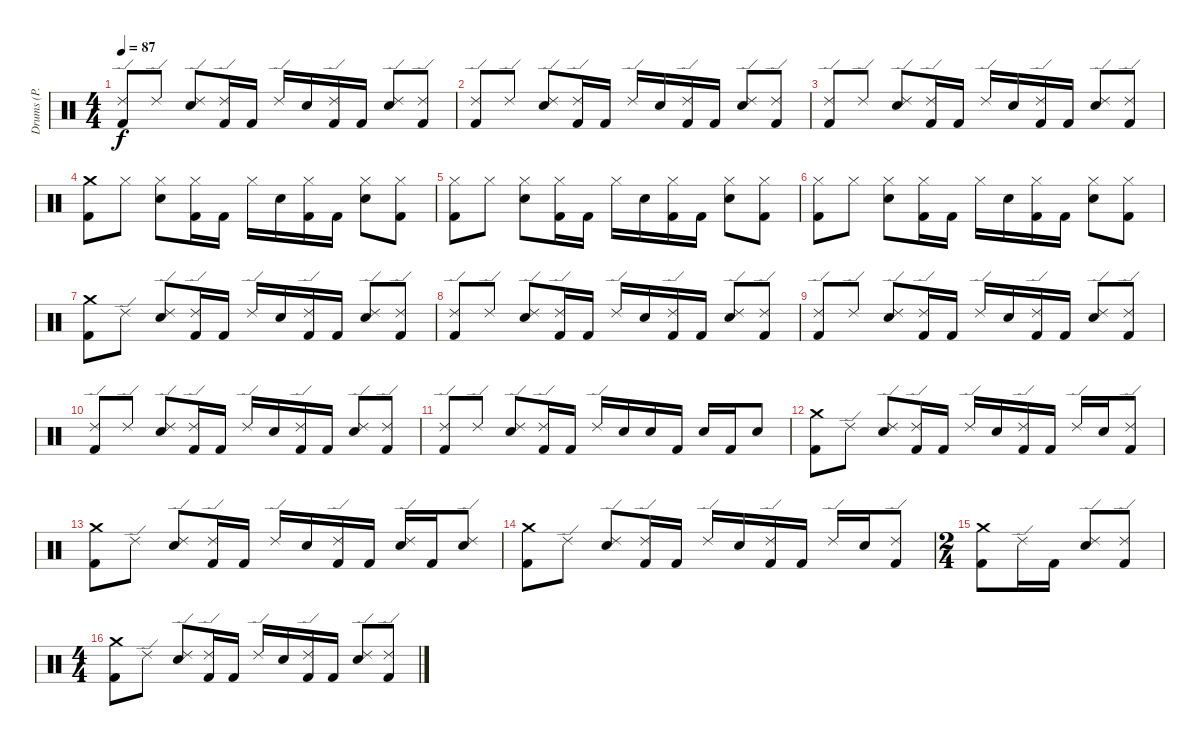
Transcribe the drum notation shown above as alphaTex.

\track ("Drums (P. Selway)" "Drums (P. ") {instrument percussion}
\staff {score}
\articulation defaults
\ts (4 4)
\tempo 87
\clef neutral
\ks c
("Ride (edge) 2" "Kick (hit) 2").8{dy f} "Ride (edge) 2".8 ("Ride (edge) 2" "Electric Snare (hit)").8 ("Ride (edge) 2" "Kick (hit) 2").16 "Kick (hit) 2".16 "Ride (edge) 2".16 "Electric Snare (hit)".16 ("Ride (edge) 2" "Kick (hit) 2").16 "Kick (hit) 2".16 ("Ride (edge) 2" "Electric Snare (hit)").8 ("Ride (edge) 2" "Kick (hit) 2").8 |
("Ride (edge) 2" "Kick (hit) 2").8 "Ride (edge) 2".8 ("Ride (edge) 2" "Electric Snare (hit)").8 ("Ride (edge) 2" "Kick (hit) 2").16 "Kick (hit) 2".16 "Ride (edge) 2".16 "Electric Snare (hit)".16 ("Ride (edge) 2" "Kick (hit) 2").16 "Kick (hit) 2".16 ("Ride (edge) 2" "Electric Snare (hit)").8 ("Ride (edge) 2" "Kick (hit) 2").8 |
("Ride (edge) 2" "Kick (hit) 2").8 "Ride (edge) 2".8 ("Ride (edge) 2" "Electric Snare (hit)").8 ("Ride (edge) 2" "Kick (hit) 2").16 "Kick (hit) 2".16 "Ride (edge) 2".16 "Electric Snare (hit)".16 ("Ride (edge) 2" "Kick (hit) 2").16 "Kick (hit) 2".16 ("Ride (edge) 2" "Electric Snare (hit)").8 ("Ride (edge) 2" "Kick (hit) 2").8 |
("Crash medium (hit)" "Kick (hit) 2").8 "Hi-Hat (closed)".8 ("Hi-Hat (closed)" "Electric Snare (hit)").8 ("Hi-Hat (closed)" "Kick (hit) 2").16 "Kick (hit) 2".16 "Hi-Hat (closed)".16 "Electric Snare (hit)".16 ("Hi-Hat (closed)" "Kick (hit) 2").16 "Kick (hit) 2".16 ("Hi-Hat (closed)" "Electric Snare (hit)").8 ("Hi-Hat (closed)" "Kick (hit) 2").8 |
("Hi-Hat (closed)" "Kick (hit) 2").8 "Hi-Hat (closed)".8 ("Hi-Hat (closed)" "Electric Snare (hit)").8 ("Hi-Hat (closed)" "Kick (hit) 2").16 "Kick (hit) 2".16 "Hi-Hat (closed)".16 "Electric Snare (hit)".16 ("Hi-Hat (closed)" "Kick (hit) 2").16 "Kick (hit) 2".16 ("Hi-Hat (closed)" "Electric Snare (hit)").8 ("Hi-Hat (closed)" "Kick (hit) 2").8 |
("Hi-Hat (closed)" "Kick (hit) 2").8 "Hi-Hat (closed)".8 ("Hi-Hat (closed)" "Electric Snare (hit)").8 ("Hi-Hat (closed)" "Kick (hit) 2").16 "Kick (hit) 2".16 "Hi-Hat (closed)".16 "Electric Snare (hit)".16 ("Hi-Hat (closed)" "Kick (hit) 2").16 "Kick (hit) 2".16 ("Hi-Hat (closed)" "Electric Snare (hit)").8 ("Hi-Hat (closed)" "Kick (hit) 2").8 |
("Crash medium (hit)" "Kick (hit) 2").8 "Ride (edge) 2".8 ("Ride (edge) 2" "Electric Snare (hit)").8 ("Ride (edge) 2" "Kick (hit) 2").16 "Kick (hit) 2".16 "Ride (edge) 2".16 "Electric Snare (hit)".16 ("Ride (edge) 2" "Kick (hit) 2").16 "Kick (hit) 2".16 ("Ride (edge) 2" "Electric Snare (hit)").8 ("Ride (edge) 2" "Kick (hit) 2").8 |
("Ride (edge) 2" "Kick (hit) 2").8 "Ride (edge) 2".8 ("Ride (edge) 2" "Electric Snare (hit)").8 ("Ride (edge) 2" "Kick (hit) 2").16 "Kick (hit) 2".16 "Ride (edge) 2".16 "Electric Snare (hit)".16 ("Ride (edge) 2" "Kick (hit) 2").16 "Kick (hit) 2".16 ("Ride (edge) 2" "Electric Snare (hit)").8 ("Ride (edge) 2" "Kick (hit) 2").8 |
("Ride (edge) 2" "Kick (hit) 2").8 "Ride (edge) 2".8 ("Ride (edge) 2" "Electric Snare (hit)").8 ("Ride (edge) 2" "Kick (hit) 2").16 "Kick (hit) 2".16 "Ride (edge) 2".16 "Electric Snare (hit)".16 ("Ride (edge) 2" "Kick (hit) 2").16 "Kick (hit) 2".16 ("Ride (edge) 2" "Electric Snare (hit)").8 ("Ride (edge) 2" "Kick (hit) 2").8 |
("Ride (edge) 2" "Kick (hit) 2").8 "Ride (edge) 2".8 ("Ride (edge) 2" "Electric Snare (hit)").8 ("Ride (edge) 2" "Kick (hit) 2").16 "Kick (hit) 2".16 "Ride (edge) 2".16 "Electric Snare (hit)".16 ("Ride (edge) 2" "Kick (hit) 2").16 "Kick (hit) 2".16 ("Ride (edge) 2" "Electric Snare (hit)").8 ("Ride (edge) 2" "Kick (hit) 2").8 |
("Ride (edge) 2" "Kick (hit) 2").8 "Ride (edge) 2".8 ("Ride (edge) 2" "Electric Snare (hit)").8 ("Ride (edge) 2" "Kick (hit) 2").16 "Kick (hit) 2".16 "Ride (edge) 2".16 "Electric Snare (hit)".16 "Electric Snare (hit)".16 "Kick (hit) 2".16 "Electric Snare (hit)".16 "Kick (hit) 2".16 "Electric Snare (hit)".8 |
("Crash medium (hit)" "Kick (hit) 2").8 "Ride (edge) 2".8 ("Ride (edge) 2" "Electric Snare (hit)").8 ("Ride (edge) 2" "Kick (hit) 2").16 "Kick (hit) 2".16 "Ride (edge) 2".16 "Electric Snare (hit)".16 ("Ride (edge) 2" "Kick (hit) 2").16 "Kick (hit) 2".16 "Ride (edge) 2".16 "Electric Snare (hit)".16 ("Ride (edge) 2" "Kick (hit) 2").8 |
("Crash medium (hit)" "Kick (hit) 2").8 "Ride (edge) 2".8 ("Ride (edge) 2" "Electric Snare (hit)").8 ("Ride (edge) 2" "Kick (hit) 2").16 "Kick (hit) 2".16 "Ride (edge) 2".16 "Electric Snare (hit)".16 ("Ride (edge) 2" "Kick (hit) 2").16 "Kick (hit) 2".16 ("Ride (edge) 2" "Electric Snare (hit)").16 "Kick (hit) 2".16 ("Ride (edge) 2" "Electric Snare (hit)").8 |
("Crash medium (hit)" "Kick (hit) 2").8 "Ride (edge) 2".8 ("Ride (edge) 2" "Electric Snare (hit)").8 ("Ride (edge) 2" "Kick (hit) 2").16 "Kick (hit) 2".16 "Ride (edge) 2".16 "Electric Snare (hit)".16 ("Ride (edge) 2" "Kick (hit) 2").16 "Kick (hit) 2".16 "Ride (edge) 2".16 "Electric Snare (hit)".16 ("Ride (edge) 2" "Kick (hit) 2").8 |
\ts (2 4)
("Crash medium (hit)" "Kick (hit) 2").8 "Ride (edge) 2".16 "Kick (hit) 2".16 ("Ride (edge) 2" "Electric Snare (hit)").8 ("Ride (edge) 2" "Kick (hit) 2").8 |
\ts (4 4)
("Crash medium (hit)" "Kick (hit) 2").8 "Ride (edge) 2".8 ("Ride (edge) 2" "Electric Snare (hit)").8 ("Ride (edge) 2" "Kick (hit) 2").16 "Kick (hit) 2".16 "Ride (edge) 2".16 "Electric Snare (hit)".16 ("Ride (edge) 2" "Kick (hit) 2").16 "Kick (hit) 2".16 ("Ride (edge) 2" "Electric Snare (hit)").8 ("Ride (edge) 2" "Kick (hit) 2").8
